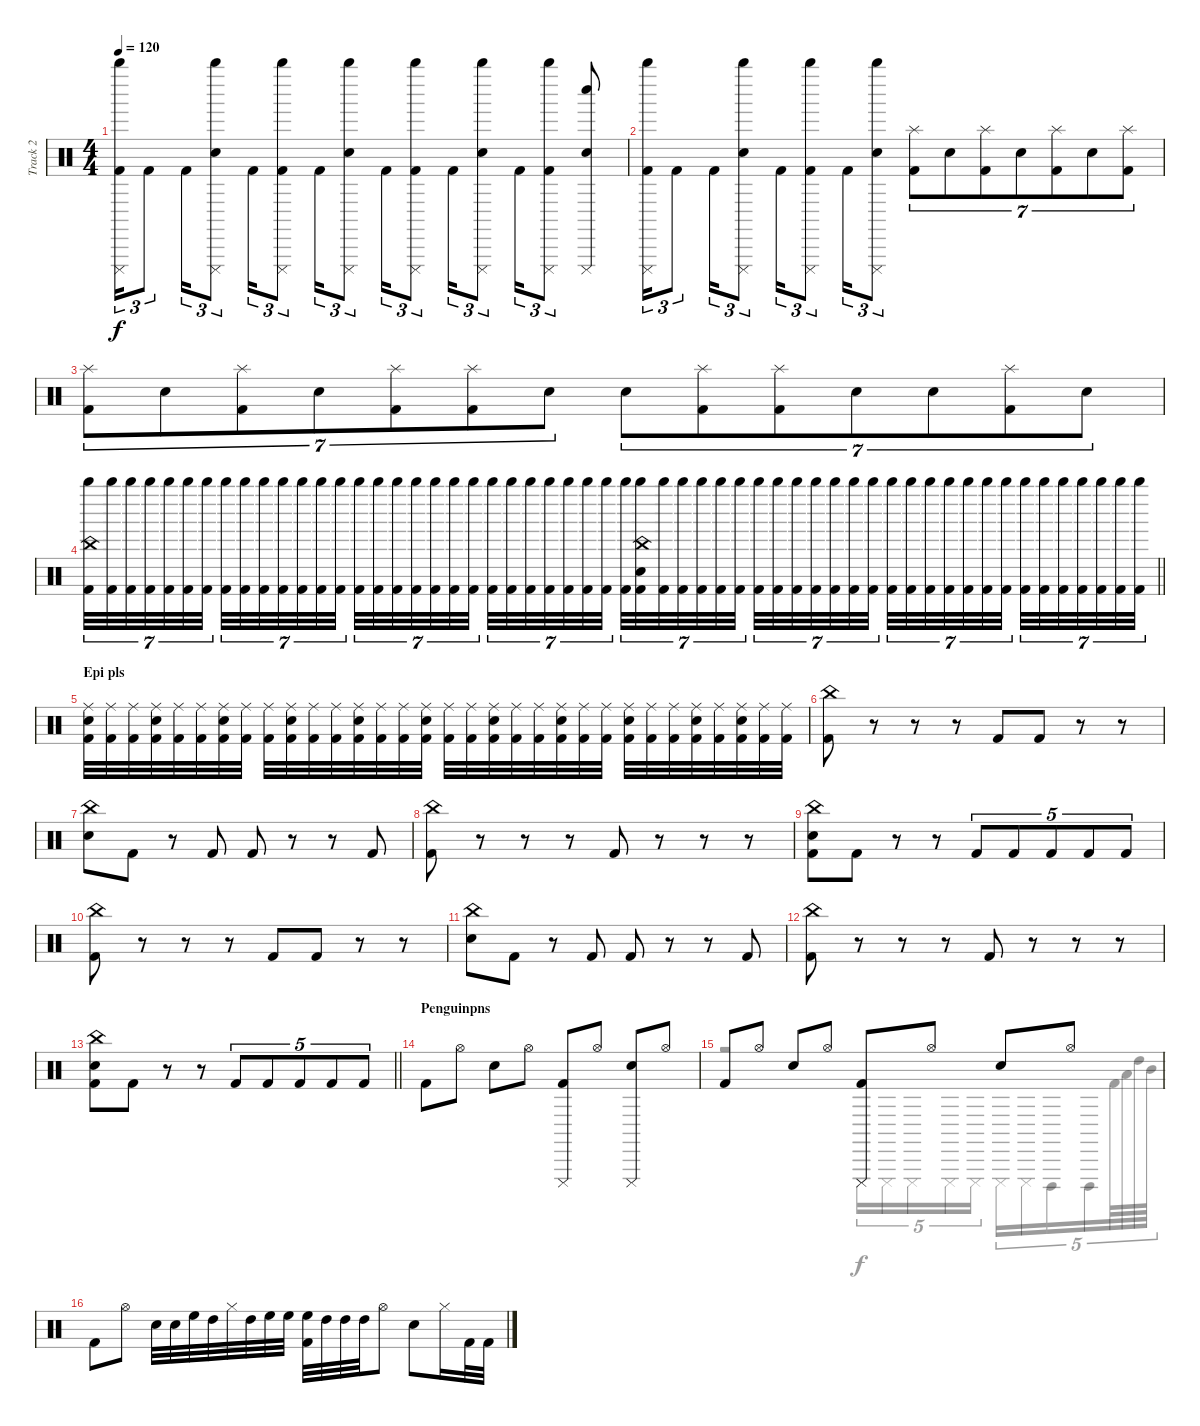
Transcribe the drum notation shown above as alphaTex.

\track ("Track 2" "Track 2") {instrument percussion}
\staff {score}
\articulation defaults
\voice
\ts (4 4)
\tempo 120
\clef neutral
\ks c
("Whistle high (hit)" "Cuica (mute)" "Kick (hit) 2").16{tu (3 2) dy f} "Kick (hit) 2".8{tu (3 2)} "Kick (hit) 2".16{tu (3 2)} ("Whistle high (hit)" "Cuica (mute)" "Electric Snare (hit)").8{tu (3 2)} "Kick (hit) 2".16{tu (3 2)} ("Whistle high (hit)" "Cuica (mute)" "Kick (hit) 2").8{tu (3 2)} "Kick (hit) 2".16{tu (3 2)} ("Whistle high (hit)" "Cuica (mute)" "Electric Snare (hit)").8{tu (3 2)} "Kick (hit) 2".16{tu (3 2)} ("Whistle high (hit)" "Cuica (mute)" "Kick (hit) 2").8{tu (3 2)} "Kick (hit) 2".16{tu (3 2)} ("Whistle high (hit)" "Cuica (mute)" "Electric Snare (hit)").8{tu (3 2)} "Kick (hit) 2".16{tu (3 2)} ("Whistle high (hit)" "Cuica (mute)" "Kick (hit) 2").8{tu (3 2)} ("Whistle low (hit)" "Cuica (mute)" "Electric Snare (hit)").8 |
("Whistle high (hit)" "Cuica (mute)" "Kick (hit) 2").16{tu (3 2)} "Kick (hit) 2".8{tu (3 2)} "Kick (hit) 2".16{tu (3 2)} ("Whistle high (hit)" "Cuica (mute)" "Electric Snare (hit)").8{tu (3 2)} "Kick (hit) 2".16{tu (3 2)} ("Whistle high (hit)" "Cuica (mute)" "Kick (hit) 2").8{tu (3 2)} "Kick (hit) 2".16{tu (3 2)} ("Whistle high (hit)" "Cuica (mute)" "Electric Snare (hit)").8{tu (3 2)} ("Splash (hit)" "Kick (hit) 2").8{tu (7 4)} "Electric Snare (hit)".8{tu (7 4)} ("Splash (hit)" "Kick (hit) 2").8{tu (7 4)} "Electric Snare (hit)".8{tu (7 4)} ("Splash (hit)" "Kick (hit) 2").8{tu (7 4)} "Electric Snare (hit)".8{tu (7 4)} ("Splash (hit)" "Kick (hit) 2").8{tu (7 4)} |
("Splash (hit)" "Kick (hit) 2").8{tu (7 4)} "Electric Snare (hit)".8{tu (7 4)} ("Splash (hit)" "Kick (hit) 2").8{tu (7 4)} "Electric Snare (hit)".8{tu (7 4)} ("Splash (hit)" "Kick (hit) 2").8{tu (7 4)} ("Splash (hit)" "Kick (hit) 2").8{tu (7 4)} "Electric Snare (hit)".8{tu (7 4)} "Electric Snare (hit)".8{tu (7 4)} ("Splash (hit)" "Kick (hit) 2").8{tu (7 4)} ("Splash (hit)" "Kick (hit) 2").8{tu (7 4)} "Electric Snare (hit)".8{tu (7 4)} "Electric Snare (hit)".8{tu (7 4)} ("Splash (hit)" "Kick (hit) 2").8{tu (7 4)} "Electric Snare (hit)".8{tu (7 4)} |
\barLineRight lightlight
("China (hit)" "Whistle high (hit)" "Kick (hit) 2").32{tu (7 4)} ("Whistle high (hit)" "Kick (hit) 2").32{tu (7 4)} ("Whistle high (hit)" "Kick (hit) 2").32{tu (7 4)} ("Whistle high (hit)" "Kick (hit) 2").32{tu (7 4)} ("Whistle high (hit)" "Kick (hit) 2").32{tu (7 4)} ("Whistle high (hit)" "Kick (hit) 2").32{tu (7 4)} ("Whistle high (hit)" "Kick (hit) 2").32{tu (7 4) beam splitsecondary} ("Whistle high (hit)" "Kick (hit) 2").32{tu (7 4)} ("Whistle high (hit)" "Kick (hit) 2").32{tu (7 4)} ("Whistle high (hit)" "Kick (hit) 2").32{tu (7 4)} ("Whistle high (hit)" "Kick (hit) 2").32{tu (7 4)} ("Whistle high (hit)" "Kick (hit) 2").32{tu (7 4)} ("Whistle high (hit)" "Kick (hit) 2").32{tu (7 4)} ("Whistle high (hit)" "Kick (hit) 2").32{tu (7 4)} ("Whistle high (hit)" "Kick (hit) 2").32{tu (7 4)} ("Whistle high (hit)" "Kick (hit) 2").32{tu (7 4)} ("Whistle high (hit)" "Kick (hit) 2").32{tu (7 4)} ("Whistle high (hit)" "Kick (hit) 2").32{tu (7 4)} ("Whistle high (hit)" "Kick (hit) 2").32{tu (7 4)} ("Whistle high (hit)" "Kick (hit) 2").32{tu (7 4)} ("Whistle high (hit)" "Kick (hit) 2").32{tu (7 4) beam splitsecondary} ("Whistle high (hit)" "Kick (hit) 2").32{tu (7 4)} ("Whistle high (hit)" "Kick (hit) 2").32{tu (7 4)} ("Whistle high (hit)" "Kick (hit) 2").32{tu (7 4)} ("Whistle high (hit)" "Kick (hit) 2").32{tu (7 4)} ("Whistle high (hit)" "Kick (hit) 2").32{tu (7 4)} ("Whistle high (hit)" "Kick (hit) 2").32{tu (7 4)} ("Whistle high (hit)" "Kick (hit) 2").32{tu (7 4)} ("Whistle high (hit)" "Kick (hit) 2").32{tu (7 4)} ("China (hit)" "Whistle high (hit)" "Electric Snare (hit)" "Kick (hit) 2").32{tu (7 4)} ("Whistle high (hit)" "Kick (hit) 2").32{tu (7 4)} ("Whistle high (hit)" "Kick (hit) 2").32{tu (7 4)} ("Whistle high (hit)" "Kick (hit) 2").32{tu (7 4)} ("Whistle high (hit)" "Kick (hit) 2").32{tu (7 4)} ("Whistle high (hit)" "Kick (hit) 2").32{tu (7 4) beam splitsecondary} ("Whistle high (hit)" "Kick (hit) 2").32{tu (7 4)} ("Whistle high (hit)" "Kick (hit) 2").32{tu (7 4)} ("Whistle high (hit)" "Kick (hit) 2").32{tu (7 4)} ("Whistle high (hit)" "Kick (hit) 2").32{tu (7 4)} ("Whistle high (hit)" "Kick (hit) 2").32{tu (7 4)} ("Whistle high (hit)" "Kick (hit) 2").32{tu (7 4)} ("Whistle high (hit)" "Kick (hit) 2").32{tu (7 4)} ("Whistle high (hit)" "Kick (hit) 2").32{tu (7 4)} ("Whistle high (hit)" "Kick (hit) 2").32{tu (7 4)} ("Whistle high (hit)" "Kick (hit) 2").32{tu (7 4)} ("Whistle high (hit)" "Kick (hit) 2").32{tu (7 4)} ("Whistle high (hit)" "Kick (hit) 2").32{tu (7 4)} ("Whistle high (hit)" "Kick (hit) 2").32{tu (7 4)} ("Whistle high (hit)" "Kick (hit) 2").32{tu (7 4) beam splitsecondary} ("Whistle high (hit)" "Kick (hit) 2").32{tu (7 4)} ("Whistle high (hit)" "Kick (hit) 2").32{tu (7 4)} ("Whistle high (hit)" "Kick (hit) 2").32{tu (7 4)} ("Whistle high (hit)" "Kick (hit) 2").32{tu (7 4)} ("Whistle high (hit)" "Kick (hit) 2").32{tu (7 4)} ("Whistle high (hit)" "Kick (hit) 2").32{tu (7 4)} ("Whistle high (hit)" "Kick (hit) 2").32{tu (7 4)} |
\section ("" "Epi pls")
("Ride (middle)" "Electric Snare (hit)" "Kick (hit) 2").32 ("Ride (middle)" "Kick (hit) 2").32 ("Ride (middle)" "Kick (hit) 2").32 ("Ride (middle)" "Electric Snare (hit)" "Kick (hit) 2").32 ("Ride (middle)" "Kick (hit) 2").32 ("Ride (middle)" "Kick (hit) 2").32 ("Ride (middle)" "Electric Snare (hit)" "Kick (hit) 2").32 ("Ride (middle)" "Kick (hit) 2").32 ("Ride (middle)" "Kick (hit) 2").32 ("Ride (middle)" "Electric Snare (hit)" "Kick (hit) 2").32 ("Ride (middle)" "Kick (hit) 2").32 ("Ride (middle)" "Kick (hit) 2").32 ("Ride (middle)" "Electric Snare (hit)" "Kick (hit) 2").32 ("Ride (middle)" "Kick (hit) 2").32 ("Ride (middle)" "Kick (hit) 2").32 ("Ride (middle)" "Electric Snare (hit)" "Kick (hit) 2").32 ("Ride (middle)" "Kick (hit) 2").32 ("Ride (middle)" "Kick (hit) 2").32 ("Ride (middle)" "Electric Snare (hit)" "Kick (hit) 2").32 ("Ride (middle)" "Kick (hit) 2").32 ("Ride (middle)" "Kick (hit) 2").32 ("Ride (middle)" "Electric Snare (hit)" "Kick (hit) 2").32 ("Ride (middle)" "Kick (hit) 2").32 ("Ride (middle)" "Kick (hit) 2").32 ("Ride (middle)" "Electric Snare (hit)" "Kick (hit) 2").32 ("Ride (middle)" "Kick (hit) 2").32 ("Ride (middle)" "Kick (hit) 2").32 ("Ride (middle)" "Electric Snare (hit)" "Kick (hit) 2").32 ("Ride (middle)" "Kick (hit) 2").32 ("Ride (middle)" "Electric Snare (hit)" "Kick (hit) 2").32 ("Ride (middle)" "Kick (hit) 2").32 ("Ride (middle)" "Kick (hit) 2").32 |
("China (hit)" "Kick (hit) 2").8 r.8 r.8 r.8 "Kick (hit) 2".8 "Kick (hit) 2".8 r.8 r.8 |
("China (hit)" "Electric Snare (hit)").8 "Kick (hit) 2".8 r.8 "Kick (hit) 2".8 "Kick (hit) 2".8 r.8 r.8 "Kick (hit) 2".8 |
("China (hit)" "Kick (hit) 2").8 r.8 r.8 r.8 "Kick (hit) 2".8 r.8 r.8 r.8 |
("China (hit)" "Electric Snare (hit)" "Kick (hit) 2").8 "Kick (hit) 2".8 r.8 r.8 "Kick (hit) 2".8{tu (5 4)} "Kick (hit) 2".8{tu (5 4)} "Kick (hit) 2".8{tu (5 4)} "Kick (hit) 2".8{tu (5 4)} "Kick (hit) 2".8{tu (5 4)} |
("China (hit)" "Kick (hit) 2").8 r.8 r.8 r.8 "Kick (hit) 2".8 "Kick (hit) 2".8 r.8 r.8 |
("China (hit)" "Electric Snare (hit)").8 "Kick (hit) 2".8 r.8 "Kick (hit) 2".8 "Kick (hit) 2".8 r.8 r.8 "Kick (hit) 2".8 |
("China (hit)" "Kick (hit) 2").8 r.8 r.8 r.8 "Kick (hit) 2".8 r.8 r.8 r.8 |
\barLineRight lightlight
("China (hit)" "Electric Snare (hit)" "Kick (hit) 2").8 "Kick (hit) 2".8 r.8 r.8 "Kick (hit) 2".8{tu (5 4)} "Kick (hit) 2".8{tu (5 4)} "Kick (hit) 2".8{tu (5 4)} "Kick (hit) 2".8{tu (5 4)} "Kick (hit) 2".8{tu (5 4)} |
\section ("" "Penguinpns")
"Kick (hit) 2".8 "Hi-Hat (open)".8 "Electric Snare (hit)".8 "Hi-Hat (open)".8 ("Cuica (mute)" "Kick (hit) 2").8 "Hi-Hat (open)".8 ("Cuica (mute)" "Electric Snare (hit)").8 "Hi-Hat (open)".8 |
"Kick (hit) 2".8 "Hi-Hat (open)".8 "Electric Snare (hit)".8 "Hi-Hat (open)".8 ("Cuica (mute)" "Kick (hit) 2").8 "Hi-Hat (open)".8 "Electric Snare (hit)".8 "Hi-Hat (open)".8 |
"Kick (hit) 2".8 "Hi-Hat (open)".8 "Electric Snare (hit)".32 "Electric Snare (hit)".32 "High Floor Tom (hit)".32 "High Tom (hit)".32 "Hi-Hat (closed)".32 "High Tom (hit)".32 "High Floor Tom (hit)".32 "High Floor Tom (hit)".32 ("High Floor Tom (hit)" "Kick (hit) 2").32 "High Tom (hit)".32 "High Tom (hit)".32 "High Tom (hit)".32 "Hi-Hat (open)".8 "Electric Snare (hit)".8 "Hi-Hat (closed)".16 "Kick (hit) 2".32 "Kick (hit) 2".32
\voice
\clef neutral
\ottava regular
\simile none
\ks c
|
|
|
\barLineRight lightlight
|
|
|
|
|
|
|
|
|
\barLineRight lightlight
|
|
r.2 "Cuica (mute)".16{tu (5 4)} "Cuica (mute)".16{tu (5 4)} "Cuica (mute)".16{tu (5 4)} "Cuica (mute)".16{tu (5 4)} "Cuica (mute)".16{tu (5 4)} "Cuica (mute)".16{tu (5 4)} "Cuica (mute)".16{tu (5 4)} "Cuica (open)".16{tu (5 4)} "Cuica (open)".16{tu (5 4)} "Kick (hit) 2".64{tu (5 4)} "Low Floor Tom (hit)".64{tu (5 4)} "High Tom (hit)".64{tu (5 4)} "Mid Tom (hit)".64{tu (5 4)} |
